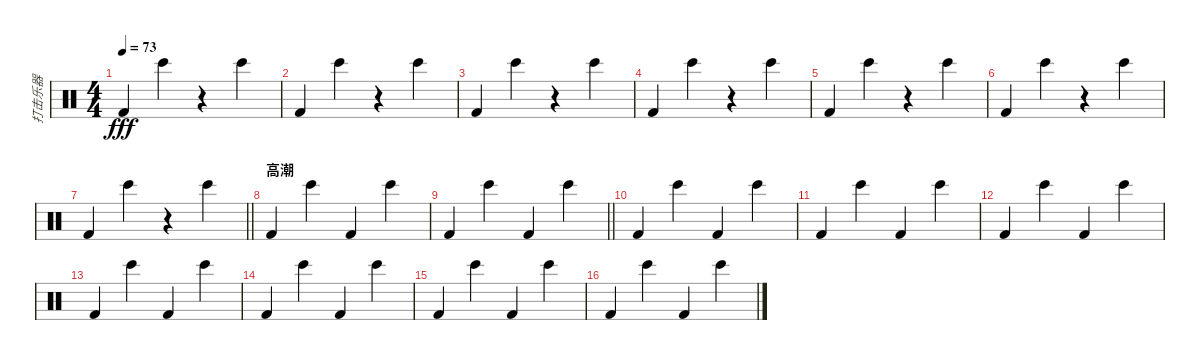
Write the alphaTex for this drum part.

\track ("打击乐器" "打击乐器") {instrument percussion}
\staff {score}
\articulation defaults
\ts (4 4)
\tempo 73
\clef neutral
\ks c "Kick (hit) 2".4{dy fff} "Bongo High (hit)".4
r.4 "Bongo High (hit)".4 |
"Kick (hit) 2".4 "Bongo High (hit)".4 r.4 "Bongo High (hit)".4 |
"Kick (hit) 2".4 "Bongo High (hit)".4 r.4 "Bongo High (hit)".4 |
"Kick (hit) 2".4 "Bongo High (hit)".4 r.4 "Bongo High (hit)".4 |
"Kick (hit) 2".4 "Bongo High (hit)".4 r.4 "Bongo High (hit)".4 |
"Kick (hit) 2".4 "Bongo High (hit)".4 r.4 "Bongo High (hit)".4 |
\barLineRight lightlight "Kick (hit) 2".4 "Bongo High (hit)".4
r.4 "Bongo High (hit)".4 |
\section ("" "高潮")
"Kick (hit) 2".4 "Bongo High (hit)".4 "Kick (hit) 2".4 "Bongo High (hit)".4 |
\barLineRight lightlight "Kick (hit) 2".4 "Bongo High (hit)".4 "Kick (hit) 2".4 "Bongo High (hit)".4
|
"Kick (hit) 2".4 "Bongo High (hit)".4 "Kick (hit) 2".4 "Bongo High (hit)".4 |
"Kick (hit) 2".4 "Bongo High (hit)".4 "Kick (hit) 2".4 "Bongo High (hit)".4 |
"Kick (hit) 2".4 "Bongo High (hit)".4 "Kick (hit) 2".4 "Bongo High (hit)".4 |
"Kick (hit) 2".4 "Bongo High (hit)".4 "Kick (hit) 2".4 "Bongo High (hit)".4 |
"Kick (hit) 2".4 "Bongo High (hit)".4 "Kick (hit) 2".4 "Bongo High (hit)".4 |
"Kick (hit) 2".4 "Bongo High (hit)".4 "Kick (hit) 2".4 "Bongo High (hit)".4 |
"Kick (hit) 2".4 "Bongo High (hit)".4 "Kick (hit) 2".4 "Bongo High (hit)".4
